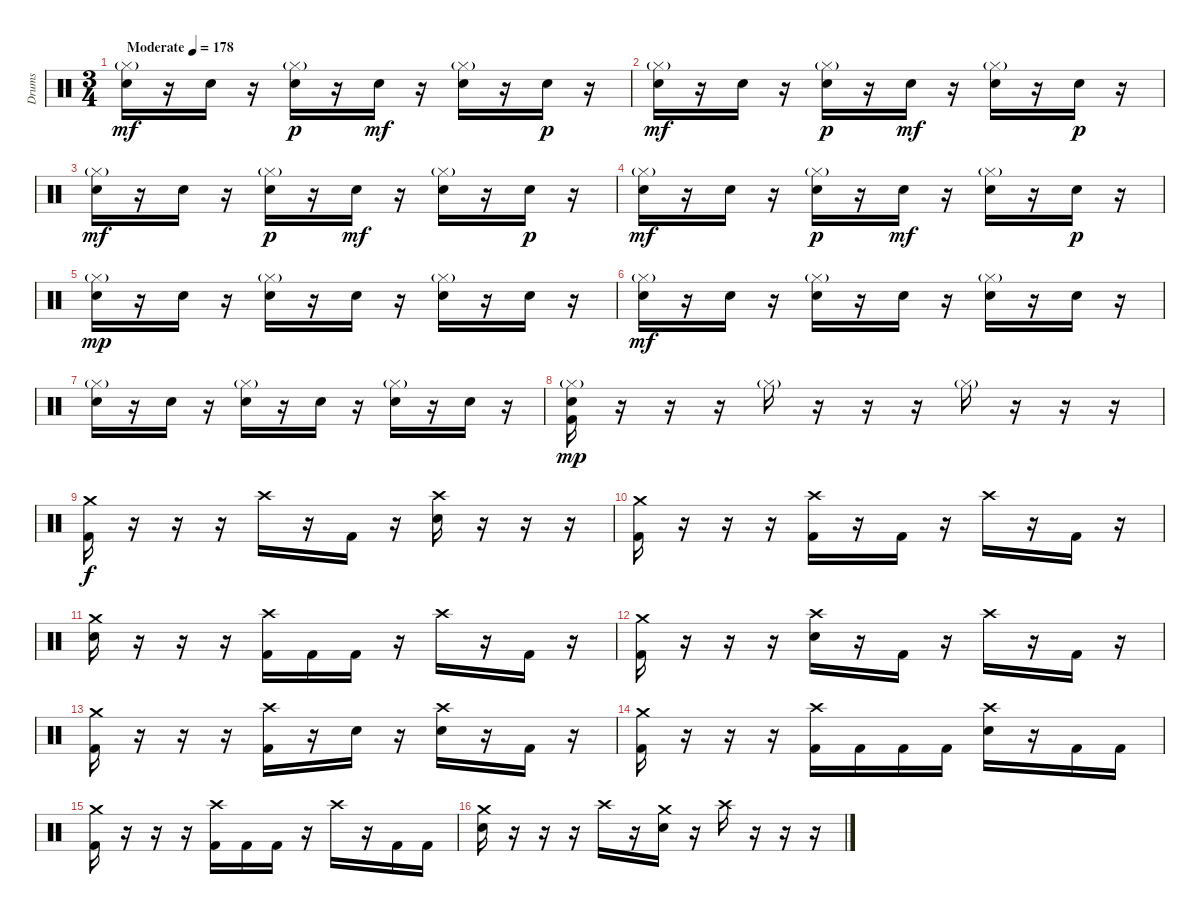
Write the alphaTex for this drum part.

\track ("Drums" "Drums") {instrument percussion}
\staff {score}
\articulation defaults
\ts (3 4)
\tempo (178 "Moderate")
\clef neutral
\ks c
("Hi-Hat (closed)"{g} "Electric Snare (hit)").16{dy mf} r.16 "Electric Snare (hit)".16 r.16 ("Hi-Hat (closed)"{g} "Electric Snare (hit)").16{dy p} r.16 "Electric Snare (hit)".16{dy mf} r.16 ("Hi-Hat (closed)"{g} "Electric Snare (hit)").16 r.16 "Electric Snare (hit)".16{dy p} r.16 |
("Hi-Hat (closed)"{g} "Electric Snare (hit)").16{dy mf} r.16 "Electric Snare (hit)".16 r.16 ("Hi-Hat (closed)"{g} "Electric Snare (hit)").16{dy p} r.16 "Electric Snare (hit)".16{dy mf} r.16 ("Hi-Hat (closed)"{g} "Electric Snare (hit)").16 r.16 "Electric Snare (hit)".16{dy p} r.16 |
("Hi-Hat (closed)"{g} "Electric Snare (hit)").16{dy mf} r.16 "Electric Snare (hit)".16 r.16 ("Hi-Hat (closed)"{g} "Electric Snare (hit)").16{dy p} r.16 "Electric Snare (hit)".16{dy mf} r.16 ("Hi-Hat (closed)"{g} "Electric Snare (hit)").16 r.16 "Electric Snare (hit)".16{dy p} r.16 |
("Hi-Hat (closed)"{g} "Electric Snare (hit)").16{dy mf} r.16 "Electric Snare (hit)".16 r.16 ("Hi-Hat (closed)"{g} "Electric Snare (hit)").16{dy p} r.16 "Electric Snare (hit)".16{dy mf} r.16 ("Hi-Hat (closed)"{g} "Electric Snare (hit)").16 r.16 "Electric Snare (hit)".16{dy p} r.16 |
("Hi-Hat (closed)"{g} "Electric Snare (hit)").16{dy mp} r.16 "Electric Snare (hit)".16 r.16 ("Hi-Hat (closed)"{g} "Electric Snare (hit)").16 r.16 "Electric Snare (hit)".16 r.16 ("Hi-Hat (closed)"{g} "Electric Snare (hit)").16 r.16 "Electric Snare (hit)".16 r.16 |
("Hi-Hat (closed)"{g} "Electric Snare (hit)").16{dy mf} r.16 "Electric Snare (hit)".16 r.16 ("Hi-Hat (closed)"{g} "Electric Snare (hit)").16 r.16 "Electric Snare (hit)".16 r.16 ("Hi-Hat (closed)"{g} "Electric Snare (hit)").16 r.16 "Electric Snare (hit)".16 r.16 |
("Hi-Hat (closed)"{g} "Electric Snare (hit)").16 r.16 "Electric Snare (hit)".16 r.16 ("Hi-Hat (closed)"{g} "Electric Snare (hit)").16 r.16 "Electric Snare (hit)".16 r.16 ("Hi-Hat (closed)"{g} "Electric Snare (hit)").16 r.16 "Electric Snare (hit)".16 r.16 |
("Hi-Hat (closed)"{g} "Electric Snare (hit)" "Kick (hit) 2").16{dy mp} r.16 r.16 r.16 "Hi-Hat (closed)"{g}.16 r.16 r.16 r.16 "Hi-Hat (closed)"{g}.16 r.16 r.16 r.16 |
("Crash medium (hit)" "Kick (hit) 2").16{dy f} r.16 r.16 r.16 "Crash high (hit)".16 r.16 "Kick (hit) 2".16 r.16 ("Crash high (hit)" "Electric Snare (hit)").16 r.16 r.16 r.16 |
("Crash medium (hit)" "Kick (hit) 2").16 r.16 r.16 r.16 ("Crash high (hit)" "Kick (hit) 2").16 r.16 "Kick (hit) 2".16 r.16 "Crash high (hit)".16 r.16 "Kick (hit) 2".16 r.16 |
("Crash medium (hit)" "Electric Snare (hit)").16 r.16 r.16 r.16 ("Crash high (hit)" "Kick (hit) 2").16 "Kick (hit) 2".16 "Kick (hit) 2".16 r.16 "Crash high (hit)".16 r.16 "Kick (hit) 2".16 r.16 |
("Crash medium (hit)" "Kick (hit) 2").16 r.16 r.16 r.16 ("Crash high (hit)" "Electric Snare (hit)").16 r.16 "Kick (hit) 2".16 r.16 "Crash high (hit)".16 r.16 "Kick (hit) 2".16 r.16 |
("Crash medium (hit)" "Kick (hit) 2").16 r.16 r.16 r.16 ("Crash high (hit)" "Kick (hit) 2").16 r.16 "Electric Snare (hit)".16 r.16 ("Crash high (hit)" "Electric Snare (hit)").16 r.16 "Kick (hit) 2".16 r.16 |
("Crash medium (hit)" "Kick (hit) 2").16 r.16 r.16 r.16 ("Crash high (hit)" "Kick (hit) 2").16 "Kick (hit) 2".16 "Kick (hit) 2".16 "Kick (hit) 2".16 ("Crash high (hit)" "Electric Snare (hit)").16 r.16 "Kick (hit) 2".16 "Kick (hit) 2".16 |
("Crash medium (hit)" "Kick (hit) 2").16 r.16 r.16 r.16 ("Crash high (hit)" "Kick (hit) 2").16 "Kick (hit) 2".16 "Kick (hit) 2".16 r.16 "Crash high (hit)".16 r.16 "Kick (hit) 2".16 "Kick (hit) 2".16 |
("Crash medium (hit)" "Electric Snare (hit)").16 r.16 r.16 r.16 "Crash high (hit)".16 r.16 ("Crash medium (hit)" "Electric Snare (hit)").16 r.16 "Crash high (hit)".16 r.16 r.16 r.16
